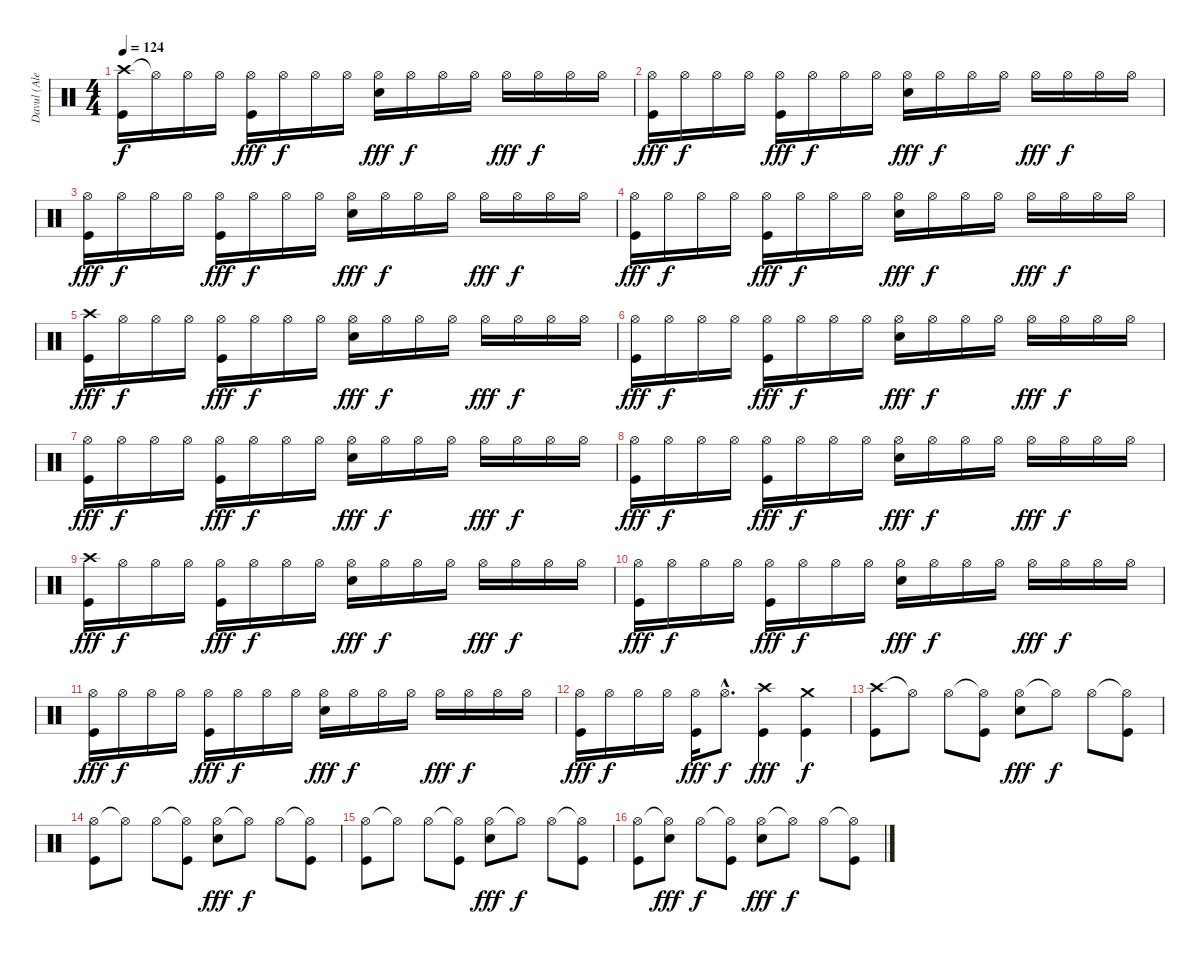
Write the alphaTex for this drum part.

\track ("Davul (Alen)" "Davul (Ale") {instrument percussion}
\staff {score}
\articulation defaults
\ts (4 4)
\tempo 124
\clef neutral
\ks c
("Crash high (hit)" "Kick (hit)").16{dy f} "Hi-Hat (open)"{t}.16 "Hi-Hat (open)".16 "Hi-Hat (open)".16 ("Hi-Hat (open)" "Kick (hit)").16{dy fff} "Hi-Hat (open)".16{dy f} "Hi-Hat (open)".16 "Hi-Hat (open)".16 ("Hi-Hat (open)" "Electric Snare (hit)").16{dy fff} "Hi-Hat (open)".16{dy f} "Hi-Hat (open)".16 "Hi-Hat (open)".16 "Hi-Hat (open)".16{dy fff} "Hi-Hat (open)".16{dy f} "Hi-Hat (open)".16 "Hi-Hat (open)".16 |
("Hi-Hat (open)" "Kick (hit)").16{dy fff} "Hi-Hat (open)".16{dy f} "Hi-Hat (open)".16 "Hi-Hat (open)".16 ("Hi-Hat (open)" "Kick (hit)").16{dy fff} "Hi-Hat (open)".16{dy f} "Hi-Hat (open)".16 "Hi-Hat (open)".16 ("Hi-Hat (open)" "Electric Snare (hit)").16{dy fff} "Hi-Hat (open)".16{dy f} "Hi-Hat (open)".16 "Hi-Hat (open)".16 "Hi-Hat (open)".16{dy fff} "Hi-Hat (open)".16{dy f} "Hi-Hat (open)".16 "Hi-Hat (open)".16 |
("Hi-Hat (open)" "Kick (hit)").16{dy fff} "Hi-Hat (open)".16{dy f} "Hi-Hat (open)".16 "Hi-Hat (open)".16 ("Hi-Hat (open)" "Kick (hit)").16{dy fff} "Hi-Hat (open)".16{dy f} "Hi-Hat (open)".16 "Hi-Hat (open)".16 ("Hi-Hat (open)" "Electric Snare (hit)").16{dy fff} "Hi-Hat (open)".16{dy f} "Hi-Hat (open)".16 "Hi-Hat (open)".16 "Hi-Hat (open)".16{dy fff} "Hi-Hat (open)".16{dy f} "Hi-Hat (open)".16 "Hi-Hat (open)".16 |
("Hi-Hat (open)" "Kick (hit)").16{dy fff} "Hi-Hat (open)".16{dy f} "Hi-Hat (open)".16 "Hi-Hat (open)".16 ("Hi-Hat (open)" "Kick (hit)").16{dy fff} "Hi-Hat (open)".16{dy f} "Hi-Hat (open)".16 "Hi-Hat (open)".16 ("Hi-Hat (open)" "Electric Snare (hit)").16{dy fff} "Hi-Hat (open)".16{dy f} "Hi-Hat (open)".16 "Hi-Hat (open)".16 "Hi-Hat (open)".16{dy fff} "Hi-Hat (open)".16{dy f} "Hi-Hat (open)".16 "Hi-Hat (open)".16 |
("Crash high (hit)" "Kick (hit)").16{dy fff} "Hi-Hat (open)".16{dy f} "Hi-Hat (open)".16 "Hi-Hat (open)".16 ("Hi-Hat (open)" "Kick (hit)").16{dy fff} "Hi-Hat (open)".16{dy f} "Hi-Hat (open)".16 "Hi-Hat (open)".16 ("Hi-Hat (open)" "Electric Snare (hit)").16{dy fff} "Hi-Hat (open)".16{dy f} "Hi-Hat (open)".16 "Hi-Hat (open)".16 "Hi-Hat (open)".16{dy fff} "Hi-Hat (open)".16{dy f} "Hi-Hat (open)".16 "Hi-Hat (open)".16 |
("Hi-Hat (open)" "Kick (hit)").16{dy fff} "Hi-Hat (open)".16{dy f} "Hi-Hat (open)".16 "Hi-Hat (open)".16 ("Hi-Hat (open)" "Kick (hit)").16{dy fff} "Hi-Hat (open)".16{dy f} "Hi-Hat (open)".16 "Hi-Hat (open)".16 ("Hi-Hat (open)" "Electric Snare (hit)").16{dy fff} "Hi-Hat (open)".16{dy f} "Hi-Hat (open)".16 "Hi-Hat (open)".16 "Hi-Hat (open)".16{dy fff} "Hi-Hat (open)".16{dy f} "Hi-Hat (open)".16 "Hi-Hat (open)".16 |
("Hi-Hat (open)" "Kick (hit)").16{dy fff} "Hi-Hat (open)".16{dy f} "Hi-Hat (open)".16 "Hi-Hat (open)".16 ("Hi-Hat (open)" "Kick (hit)").16{dy fff} "Hi-Hat (open)".16{dy f} "Hi-Hat (open)".16 "Hi-Hat (open)".16 ("Hi-Hat (open)" "Electric Snare (hit)").16{dy fff} "Hi-Hat (open)".16{dy f} "Hi-Hat (open)".16 "Hi-Hat (open)".16 "Hi-Hat (open)".16{dy fff} "Hi-Hat (open)".16{dy f} "Hi-Hat (open)".16 "Hi-Hat (open)".16 |
("Hi-Hat (open)" "Kick (hit)").16{dy fff} "Hi-Hat (open)".16{dy f} "Hi-Hat (open)".16 "Hi-Hat (open)".16 ("Hi-Hat (open)" "Kick (hit)").16{dy fff} "Hi-Hat (open)".16{dy f} "Hi-Hat (open)".16 "Hi-Hat (open)".16 ("Hi-Hat (open)" "Electric Snare (hit)").16{dy fff} "Hi-Hat (open)".16{dy f} "Hi-Hat (open)".16 "Hi-Hat (open)".16 "Hi-Hat (open)".16{dy fff} "Hi-Hat (open)".16{dy f} "Hi-Hat (open)".16 "Hi-Hat (open)".16 |
("Crash high (hit)" "Kick (hit)").16{dy fff} "Hi-Hat (open)".16{dy f} "Hi-Hat (open)".16 "Hi-Hat (open)".16 ("Hi-Hat (open)" "Kick (hit)").16{dy fff} "Hi-Hat (open)".16{dy f} "Hi-Hat (open)".16 "Hi-Hat (open)".16 ("Hi-Hat (open)" "Electric Snare (hit)").16{dy fff} "Hi-Hat (open)".16{dy f} "Hi-Hat (open)".16 "Hi-Hat (open)".16 "Hi-Hat (open)".16{dy fff} "Hi-Hat (open)".16{dy f} "Hi-Hat (open)".16 "Hi-Hat (open)".16 |
("Hi-Hat (open)" "Kick (hit)").16{dy fff} "Hi-Hat (open)".16{dy f} "Hi-Hat (open)".16 "Hi-Hat (open)".16 ("Hi-Hat (open)" "Kick (hit)").16{dy fff} "Hi-Hat (open)".16{dy f} "Hi-Hat (open)".16 "Hi-Hat (open)".16 ("Hi-Hat (open)" "Electric Snare (hit)").16{dy fff} "Hi-Hat (open)".16{dy f} "Hi-Hat (open)".16 "Hi-Hat (open)".16 "Hi-Hat (open)".16{dy fff} "Hi-Hat (open)".16{dy f} "Hi-Hat (open)".16 "Hi-Hat (open)".16 |
("Hi-Hat (open)" "Kick (hit)").16{dy fff} "Hi-Hat (open)".16{dy f} "Hi-Hat (open)".16 "Hi-Hat (open)".16 ("Hi-Hat (open)" "Kick (hit)").16{dy fff} "Hi-Hat (open)".16{dy f} "Hi-Hat (open)".16 "Hi-Hat (open)".16 ("Hi-Hat (open)" "Electric Snare (hit)").16{dy fff} "Hi-Hat (open)".16{dy f} "Hi-Hat (open)".16 "Hi-Hat (open)".16 "Hi-Hat (open)".16{dy fff} "Hi-Hat (open)".16{dy f} "Hi-Hat (open)".16 "Hi-Hat (open)".16 |
("Hi-Hat (open)" "Kick (hit)").16{dy fff} "Hi-Hat (open)".16{dy f} "Hi-Hat (open)".16 "Hi-Hat (open)".16 ("Hi-Hat (open)" "Kick (hit)").16{dy fff} "Hi-Hat (open)"{hac}.8{d dy f} ("Crash high (hit)" "Kick (hit)").4{dy fff} ("Crash medium (hit)" "Kick (hit)").4{dy f} |
("Crash high (hit)" "Kick (hit)").8 "Hi-Hat (open)"{t}.8 "Hi-Hat (open)".8 ("Hi-Hat (open)"{t} "Kick (hit)").8 ("Hi-Hat (open)" "Electric Snare (hit)").8{dy fff} "Hi-Hat (open)"{t}.8{dy f} "Hi-Hat (open)".8 ("Hi-Hat (open)"{t} "Kick (hit)").8 |
("Hi-Hat (open)" "Kick (hit)").8 "Hi-Hat (open)"{t}.8 "Hi-Hat (open)".8 ("Hi-Hat (open)"{t} "Kick (hit)").8 ("Hi-Hat (open)" "Electric Snare (hit)").8{dy fff} "Hi-Hat (open)"{t}.8{dy f} "Hi-Hat (open)".8 ("Hi-Hat (open)"{t} "Kick (hit)").8 |
("Hi-Hat (open)" "Kick (hit)").8 "Hi-Hat (open)"{t}.8 "Hi-Hat (open)".8 ("Hi-Hat (open)"{t} "Kick (hit)").8 ("Hi-Hat (open)" "Electric Snare (hit)").8{dy fff} "Hi-Hat (open)"{t}.8{dy f} "Hi-Hat (open)".8 ("Hi-Hat (open)"{t} "Kick (hit)").8 |
("Hi-Hat (open)" "Kick (hit)").8 ("Hi-Hat (open)"{t} "Electric Snare (hit)").8{dy fff} "Hi-Hat (open)".8{dy f} ("Hi-Hat (open)"{t} "Kick (hit)").8 ("Hi-Hat (open)" "Electric Snare (hit)").8{dy fff} "Hi-Hat (open)"{t}.8{dy f} "Hi-Hat (open)".8 ("Hi-Hat (open)"{t} "Kick (hit)").8
